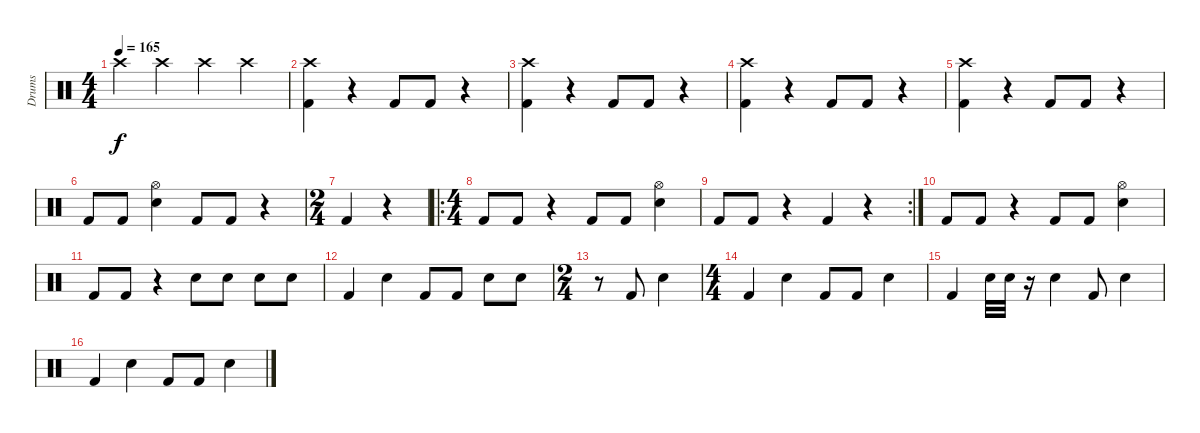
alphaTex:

\track ("Drums" "Drums") {instrument percussion}
\staff {score}
\articulation defaults
\ts (4 4)
\tempo 165
\clef neutral
\ks c "Crash high (hit)".4{dy f} "Crash high (hit)".4 "Crash high (hit)".4 "Crash high (hit)".4
|
("Kick (hit) 2" "Crash high (hit)").4 r.4 "Kick (hit) 2".8 "Kick (hit) 2".8 r.4 |
("Kick (hit) 2" "Crash high (hit)").4 r.4 "Kick (hit) 2".8 "Kick (hit) 2".8 r.4 |
("Kick (hit) 2" "Crash high (hit)").4 r.4 "Kick (hit) 2".8 "Kick (hit) 2".8 r.4 |
("Kick (hit) 2" "Crash high (hit)").4 r.4 "Kick (hit) 2".8 "Kick (hit) 2".8 r.4 |
"Kick (hit) 2".8 "Kick (hit) 2".8 ("Snare (hit) 2" "Hi-Hat (open)").4 "Kick (hit) 2".8 "Kick (hit) 2".8 r.4 |
\ts (2 4)
"Kick (hit) 2".4 r.4 |
\ro
\ts (4 4)
"Kick (hit) 2".8 "Kick (hit) 2".8 r.4 "Kick (hit) 2".8 "Kick (hit) 2".8 ("Snare (hit) 2" "Hi-Hat (open)").4 |
\rc 2 "Kick (hit) 2".8 "Kick (hit) 2".8
r.4 "Kick (hit) 2".4 r.4 |
"Kick (hit) 2".8 "Kick (hit) 2".8 r.4 "Kick (hit) 2".8 "Kick (hit) 2".8 ("Snare (hit) 2" "Hi-Hat (open)").4 |
"Kick (hit) 2".8 "Kick (hit) 2".8 r.4 "Snare (hit) 2".8 "Snare (hit) 2".8 "Snare (hit) 2".8 "Snare (hit) 2".8 |
"Kick (hit) 2".4 "Snare (hit) 2".4 "Kick (hit) 2".8 "Kick (hit) 2".8 "Snare (hit) 2".8 "Snare (hit) 2".8 |
\ts (2 4)
r.8 "Kick (hit) 2".8 "Snare (hit) 2".4 |
\ts (4 4)
"Kick (hit) 2".4 "Snare (hit) 2".4 "Kick (hit) 2".8 "Kick (hit) 2".8 "Snare (hit) 2".4 |
"Kick (hit) 2".4 "Snare (hit) 2".32 "Snare (hit) 2".32 r.16 "Snare (hit) 2".4 "Kick (hit) 2".8 "Snare (hit) 2".4 |
"Kick (hit) 2".4 "Snare (hit) 2".4 "Kick (hit) 2".8 "Kick (hit) 2".8 "Snare (hit) 2".4
